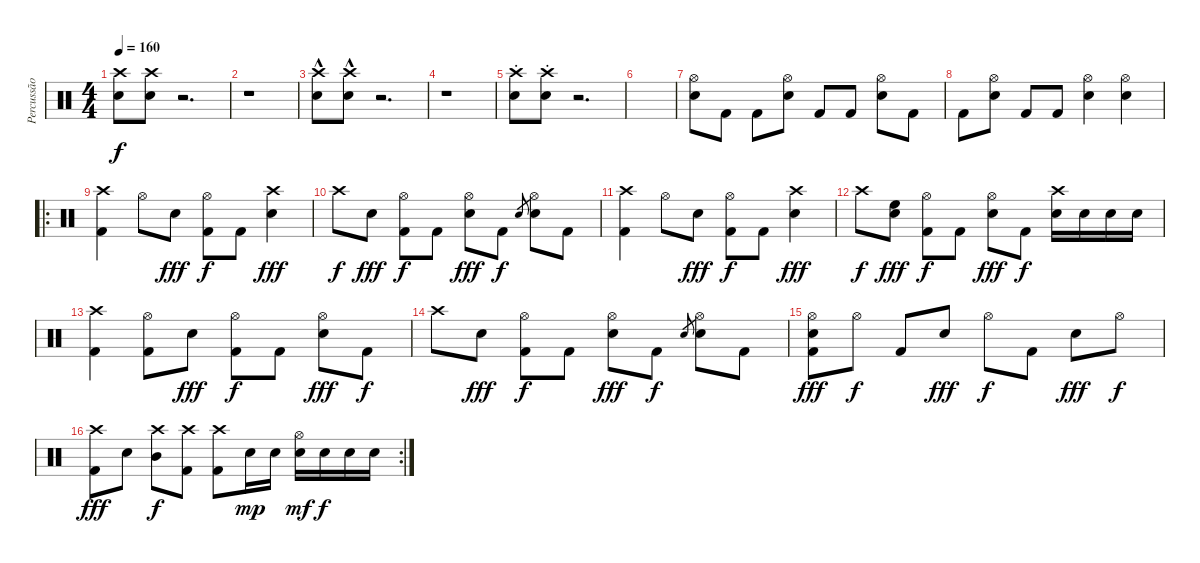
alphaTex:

\track ("Percussão" "Percussão") {instrument percussion}
\staff {score}
\articulation defaults
\ts (4 4)
\tempo 160
\clef neutral
\ks c
("Crash high (hit)" "Electric Snare (hit)").8{dy f} ("Crash high (hit)" "Electric Snare (hit)").8 r.2{d} |
r.1 |
("Crash high (hit)"{hac} "Electric Snare (hit)").8 ("Crash high (hit)"{hac} "Electric Snare (hit)").8 r.2{d} |
r.1 |
("Crash high (hit)"{st} "Electric Snare (hit)").8 ("Crash high (hit)"{st} "Electric Snare (hit)").8 r.2{d} |
|
("Hi-Hat (open)" "Electric Snare (hit)").8 "Kick (hit) 2".8 "Kick (hit) 2".8 ("Hi-Hat (open)" "Electric Snare (hit)").8 "Kick (hit) 2".8 "Kick (hit) 2".8 ("Hi-Hat (open)" "Electric Snare (hit)").8 "Kick (hit) 2".8 |
"Kick (hit) 2".8 ("Hi-Hat (open)" "Electric Snare (hit)").8 "Kick (hit) 2".8 "Kick (hit) 2".8 ("Hi-Hat (open)" "Electric Snare (hit)").4 ("Hi-Hat (open)" "Electric Snare (hit)").4 |
\ro
("Crash high (hit)" "Kick (hit) 2").4 "Hi-Hat (open)".8 "Electric Snare (hit)".8{dy fff} ("Hi-Hat (open)" "Kick (hit) 2").8{dy f} "Kick (hit) 2".8 ("Crash high (hit)" "Electric Snare (hit)").4{dy fff} |
"Crash high (hit)".8{dy f} "Electric Snare (hit)".8{dy fff} ("Hi-Hat (open)" "Kick (hit) 2").8{dy f} "Kick (hit) 2".8 ("Hi-Hat (open)" "Electric Snare (hit)").8{dy fff} "Kick (hit) 2".8{dy f} "Electric Snare (hit)".8{gr} ("Hi-Hat (open)" "Electric Snare (hit)").8 "Kick (hit) 2".8 |
("Crash high (hit)" "Kick (hit) 2").4 "Hi-Hat (open)".8 "Electric Snare (hit)".8{dy fff} ("Hi-Hat (open)" "Kick (hit) 2").8{dy f} "Kick (hit) 2".8 ("Crash high (hit)" "Electric Snare (hit)").4{dy fff} |
"Crash high (hit)".8{dy f} ("High Floor Tom (hit)" "Electric Snare (hit)").8{dy fff} ("Hi-Hat (open)" "Kick (hit) 2").8{dy f} "Kick (hit) 2".8 ("Hi-Hat (open)" "Electric Snare (hit)").8{dy fff} "Kick (hit) 2".8{dy f} ("Crash high (hit)" "Electric Snare (hit)").16 "Electric Snare (hit)".16 "Electric Snare (hit)".16 "Electric Snare (hit)".16 |
("Crash high (hit)" "Kick (hit) 2").4 ("Hi-Hat (open)" "Kick (hit) 2").8 "Electric Snare (hit)".8{dy fff} ("Hi-Hat (open)" "Kick (hit) 2").8{dy f} "Kick (hit) 2".8 ("Hi-Hat (open)" "Electric Snare (hit)").8{dy fff} "Kick (hit) 2".8{dy f} |
"Crash high (hit)".8 "Electric Snare (hit)".8{dy fff} ("Hi-Hat (open)" "Kick (hit) 2").8{dy f} "Kick (hit) 2".8 ("Hi-Hat (open)" "Electric Snare (hit)").8{dy fff} "Kick (hit) 2".8{dy f} "Electric Snare (hit)".8{gr} ("Hi-Hat (open)" "Electric Snare (hit)").8 "Kick (hit) 2".8 |
("Hi-Hat (open)" "Electric Snare (hit)" "Kick (hit) 2").8{dy fff} "Hi-Hat (open)".8{dy f} "Kick (hit) 2".8 "Electric Snare (hit)".8{dy fff} "Hi-Hat (open)".8{dy f} "Kick (hit) 2".8 "Electric Snare (hit)".8{dy fff} "Hi-Hat (open)".8{dy f} |
\rc 2
("Crash high (hit)" "Kick (hit) 2").8{dy fff} "Electric Snare (hit)".8 ("Crash high (hit)" "Mid Tom (hit)").8{dy f} ("Crash high (hit)" "Kick (hit) 2").8 ("Crash high (hit)" "Kick (hit) 2").8 "Electric Snare (hit)".16{dy mp} "Electric Snare (hit)".16 ("Hi-Hat (open)" "Electric Snare (hit)").16{dy mf} "Electric Snare (hit)".16{dy f} "Electric Snare (hit)".16 "Electric Snare (hit)".16
